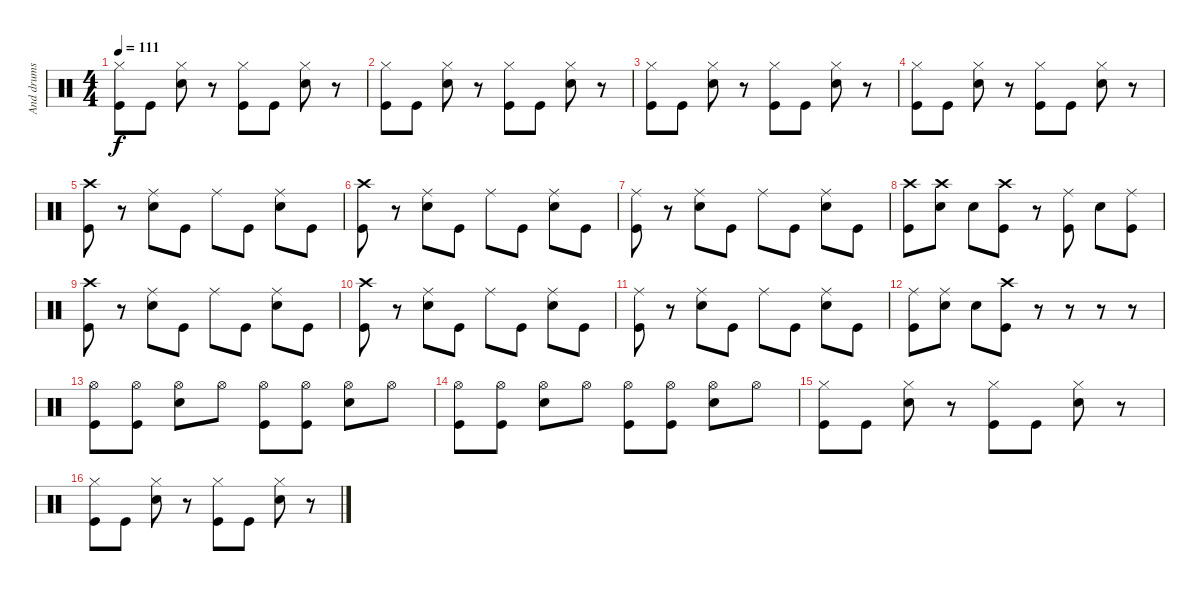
\track ("And drums" "And drums") {instrument percussion}
\staff {score}
\articulation defaults
\ts (4 4)
\tempo 111
\clef neutral
\ks c
("Hi-Hat (closed)" "Kick (hit)").8{dy f} "Kick (hit)".8 ("Hi-Hat (closed)" "Snare (hit) 2").8 r.8 ("Hi-Hat (closed)" "Kick (hit)").8 "Kick (hit)".8 ("Hi-Hat (closed)" "Snare (hit) 2").8 r.8 |
("Hi-Hat (closed)" "Kick (hit)").8 "Kick (hit)".8 ("Hi-Hat (closed)" "Snare (hit) 2").8 r.8 ("Hi-Hat (closed)" "Kick (hit)").8 "Kick (hit)".8 ("Hi-Hat (closed)" "Snare (hit) 2").8 r.8 |
("Hi-Hat (closed)" "Kick (hit)").8 "Kick (hit)".8 ("Hi-Hat (closed)" "Snare (hit) 2").8 r.8 ("Hi-Hat (closed)" "Kick (hit)").8 "Kick (hit)".8 ("Hi-Hat (closed)" "Snare (hit) 2").8 r.8 |
("Hi-Hat (closed)" "Kick (hit)").8 "Kick (hit)".8 ("Hi-Hat (closed)" "Snare (hit) 2").8 r.8 ("Hi-Hat (closed)" "Kick (hit)").8 "Kick (hit)".8 ("Hi-Hat (closed)" "Snare (hit) 2").8 r.8 |
("Crash high (hit)" "Kick (hit)").8 r.8 ("Ride (middle)" "Snare (hit) 2").8 "Kick (hit)".8 "Ride (middle)".8 "Kick (hit)".8 ("Ride (middle)" "Snare (hit) 2").8 "Kick (hit)".8 |
("Crash high (hit)" "Kick (hit)").8 r.8 ("Ride (middle)" "Snare (hit) 2").8 "Kick (hit)".8 "Ride (middle)".8 "Kick (hit)".8 ("Ride (middle)" "Snare (hit) 2").8 "Kick (hit)".8 |
("Ride (middle)" "Kick (hit)").8 r.8 ("Ride (middle)" "Snare (hit) 2").8 "Kick (hit)".8 "Ride (middle)".8 "Kick (hit)".8 ("Ride (middle)" "Snare (hit) 2").8 "Kick (hit)".8 |
("Crash high (hit)" "Kick (hit)").8 ("Crash high (hit)" "Snare (hit) 2").8 "Snare (hit) 2".8 ("Crash high (hit)" "Kick (hit)").8 r.8 ("Ride (middle)" "Kick (hit)").8 "Snare (hit) 2".8 ("Ride (middle)" "Kick (hit)").8 |
("Crash high (hit)" "Kick (hit)").8 r.8 ("Ride (middle)" "Snare (hit) 2").8 "Kick (hit)".8 "Ride (middle)".8 "Kick (hit)".8 ("Ride (middle)" "Snare (hit) 2").8 "Kick (hit)".8 |
("Crash high (hit)" "Kick (hit)").8 r.8 ("Ride (middle)" "Snare (hit) 2").8 "Kick (hit)".8 "Ride (middle)".8 "Kick (hit)".8 ("Ride (middle)" "Snare (hit) 2").8 "Kick (hit)".8 |
("Ride (middle)" "Kick (hit)").8 r.8 ("Ride (middle)" "Snare (hit) 2").8 "Kick (hit)".8 "Ride (middle)".8 "Kick (hit)".8 ("Ride (middle)" "Snare (hit) 2").8 "Kick (hit)".8 |
("Ride (middle)" "Kick (hit)").8 ("Ride (middle)" "Snare (hit) 2").8 "Snare (hit) 2".8 ("Crash high (hit)" "Kick (hit)").8 r.8 r.8 r.8 r.8 |
("Hi-Hat (open)" "Kick (hit)").8 ("Hi-Hat (open)" "Kick (hit)").8 ("Hi-Hat (open)" "Snare (hit) 2").8 "Hi-Hat (open)".8 ("Hi-Hat (open)" "Kick (hit)").8 ("Hi-Hat (open)" "Kick (hit)").8 ("Hi-Hat (open)" "Snare (hit) 2").8 "Hi-Hat (open)".8 |
("Hi-Hat (open)" "Kick (hit)").8 ("Hi-Hat (open)" "Kick (hit)").8 ("Hi-Hat (open)" "Snare (hit) 2").8 "Hi-Hat (open)".8 ("Hi-Hat (open)" "Kick (hit)").8 ("Hi-Hat (open)" "Kick (hit)").8 ("Hi-Hat (open)" "Snare (hit) 2").8 "Hi-Hat (open)".8 |
("Hi-Hat (closed)" "Kick (hit)").8 "Kick (hit)".8 ("Hi-Hat (closed)" "Snare (hit) 2").8 r.8 ("Hi-Hat (closed)" "Kick (hit)").8 "Kick (hit)".8 ("Hi-Hat (closed)" "Snare (hit) 2").8 r.8 |
("Hi-Hat (closed)" "Kick (hit)").8 "Kick (hit)".8 ("Hi-Hat (closed)" "Snare (hit) 2").8 r.8 ("Hi-Hat (closed)" "Kick (hit)").8 "Kick (hit)".8 ("Hi-Hat (closed)" "Snare (hit) 2").8 r.8
